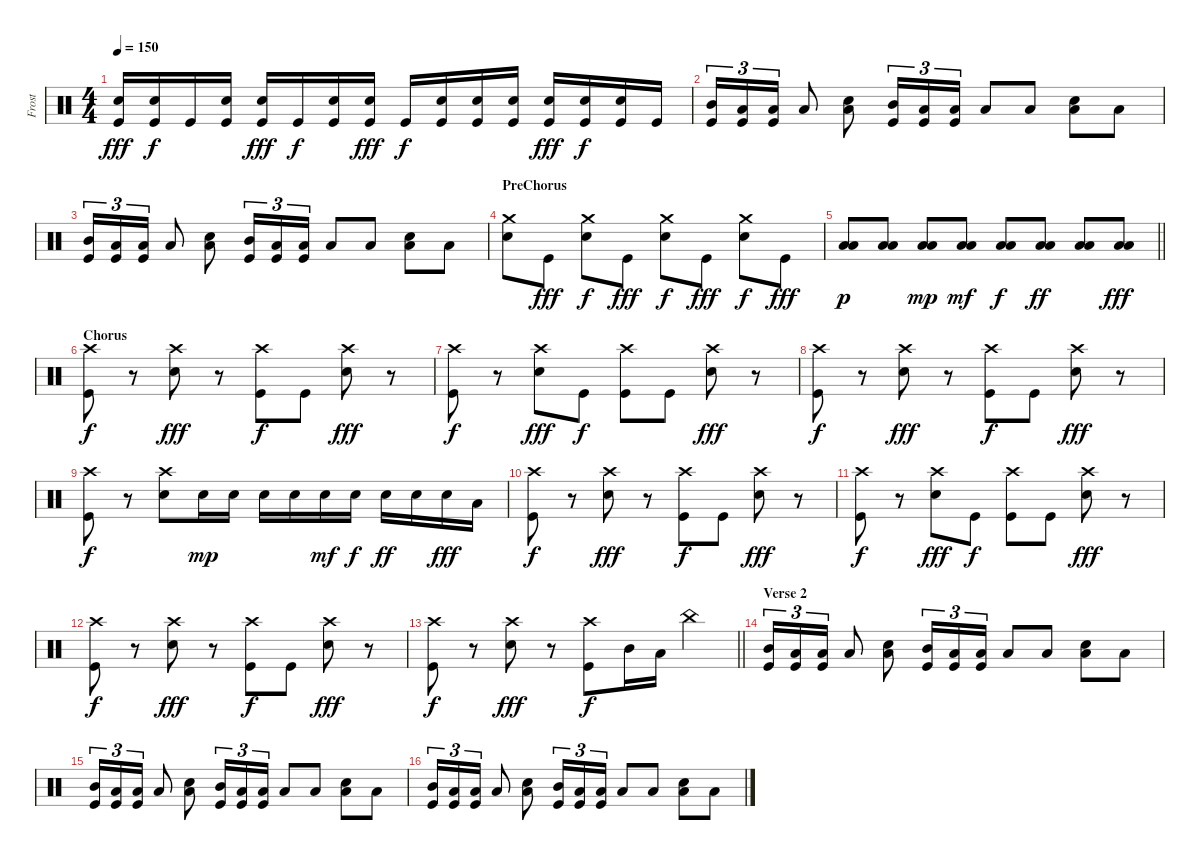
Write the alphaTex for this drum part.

\track ("Frost" "Frost") {instrument percussion}
\staff {score}
\articulation defaults
\ts (4 4)
\tempo 150
\clef neutral
\ks c
("Kick (hit)" "Electric Snare (hit)").16{dy fff} ("Kick (hit)" "Electric Snare (hit)").16{dy f} "Kick (hit)".16 ("Kick (hit)" "Electric Snare (hit)").16 ("Kick (hit)" "Electric Snare (hit)").16{dy fff} "Kick (hit)".16{dy f} ("Kick (hit)" "Electric Snare (hit)").16 ("Kick (hit)" "Electric Snare (hit)").16{dy fff} "Kick (hit)".16{dy f} ("Kick (hit)" "Electric Snare (hit)").16 ("Kick (hit)" "Electric Snare (hit)").16 ("Kick (hit)" "Electric Snare (hit)").16 ("Kick (hit)" "Electric Snare (hit)").16{dy fff} ("Kick (hit)" "Electric Snare (hit)").16{dy f} ("Kick (hit)" "Electric Snare (hit)").16 "Kick (hit)".16 |
("Mid Tom (hit)" "Kick (hit)").16{tu (3 2)} ("Low Tom (hit)" "Kick (hit)").16{tu (3 2)} ("Low Tom (hit)" "Kick (hit)").16{tu (3 2)} "Low Floor Tom (hit)".8 ("Low Floor Tom (hit)" "Electric Snare (hit)").8 ("Mid Tom (hit)" "Kick (hit)").16{tu (3 2)} ("Low Tom (hit)" "Kick (hit)").16{tu (3 2)} ("Low Tom (hit)" "Kick (hit)").16{tu (3 2)} "Low Floor Tom (hit)".8 "Low Floor Tom (hit)".8 ("Low Floor Tom (hit)" "Electric Snare (hit)").8 "Low Floor Tom (hit)".8 |
("Mid Tom (hit)" "Kick (hit)").16{tu (3 2)} ("Low Tom (hit)" "Kick (hit)").16{tu (3 2)} ("Low Tom (hit)" "Kick (hit)").16{tu (3 2)} "Low Floor Tom (hit)".8 ("Low Floor Tom (hit)" "Electric Snare (hit)").8 ("Mid Tom (hit)" "Kick (hit)").16{tu (3 2)} ("Low Tom (hit)" "Kick (hit)").16{tu (3 2)} ("Low Tom (hit)" "Kick (hit)").16{tu (3 2)} "Low Floor Tom (hit)".8 "Low Floor Tom (hit)".8 ("Low Floor Tom (hit)" "Electric Snare (hit)").8 "Low Floor Tom (hit)".8 |
\section ("" "PreChorus")
("Crash medium (hit)" "Electric Snare (hit)").8 "Kick (hit)".8{dy fff} ("Crash medium (hit)" "Electric Snare (hit)").8{dy f} "Kick (hit)".8{dy fff} ("Crash medium (hit)" "Electric Snare (hit)").8{dy f} "Kick (hit)".8{dy fff} ("Crash medium (hit)" "Electric Snare (hit)").8{dy f} "Kick (hit)".8{dy fff} |
\barLineRight lightlight
("Low Tom (hit)" "Low Floor Tom (hit)").8{dy p} ("Low Tom (hit)" "Low Floor Tom (hit)").8 ("Low Tom (hit)" "Low Floor Tom (hit)").8{dy mp} ("Low Tom (hit)" "Low Floor Tom (hit)").8{dy mf} ("Low Tom (hit)" "Low Floor Tom (hit)").8{dy f} ("Low Tom (hit)" "Low Floor Tom (hit)").8{dy ff} ("Low Tom (hit)" "Low Floor Tom (hit)").8 ("Low Tom (hit)" "Low Floor Tom (hit)").8{dy fff} |
\section ("" "Chorus")
("Kick (hit)" "Crash high (hit)").8{dy f} r.8 ("Electric Snare (hit)" "Crash high (hit)").8{dy fff} r.8 ("Kick (hit)" "Crash high (hit)").8{dy f} "Kick (hit)".8 ("Electric Snare (hit)" "Crash high (hit)").8{dy fff} r.8 |
("Kick (hit)" "Crash high (hit)").8{dy f} r.8 ("Electric Snare (hit)" "Crash high (hit)").8{dy fff} "Kick (hit)".8{dy f} ("Kick (hit)" "Crash high (hit)").8 "Kick (hit)".8 ("Electric Snare (hit)" "Crash high (hit)").8{dy fff} r.8 |
("Kick (hit)" "Crash high (hit)").8{dy f} r.8 ("Electric Snare (hit)" "Crash high (hit)").8{dy fff} r.8 ("Kick (hit)" "Crash high (hit)").8{dy f} "Kick (hit)".8 ("Electric Snare (hit)" "Crash high (hit)").8{dy fff} r.8 |
("Kick (hit)" "Crash high (hit)").8{dy f} r.8 ("Electric Snare (hit)" "Crash high (hit)").8 "Electric Snare (hit)".16{dy mp} "Electric Snare (hit)".16 "Electric Snare (hit)".16 "Electric Snare (hit)".16 "Electric Snare (hit)".16{dy mf} "Electric Snare (hit)".16{dy f} "Electric Snare (hit)".16{dy ff} "Electric Snare (hit)".16 "Electric Snare (hit)".16{dy fff} "Low Tom (hit)".16 |
("Kick (hit)" "Crash high (hit)").8{dy f} r.8 ("Electric Snare (hit)" "Crash high (hit)").8{dy fff} r.8 ("Kick (hit)" "Crash high (hit)").8{dy f} "Kick (hit)".8 ("Electric Snare (hit)" "Crash high (hit)").8{dy fff} r.8 |
("Kick (hit)" "Crash high (hit)").8{dy f} r.8 ("Electric Snare (hit)" "Crash high (hit)").8{dy fff} "Kick (hit)".8{dy f} ("Kick (hit)" "Crash high (hit)").8 "Kick (hit)".8 ("Electric Snare (hit)" "Crash high (hit)").8{dy fff} r.8 |
("Kick (hit)" "Crash high (hit)").8{dy f} r.8 ("Electric Snare (hit)" "Crash high (hit)").8{dy fff} r.8 ("Kick (hit)" "Crash high (hit)").8{dy f} "Kick (hit)".8 ("Electric Snare (hit)" "Crash high (hit)").8{dy fff} r.8 |
\barLineRight lightlight
("Kick (hit)" "Crash high (hit)").8{dy f} r.8 ("Electric Snare (hit)" "Crash high (hit)").8{dy fff} r.8 ("Kick (hit)" "Crash high (hit)").8{dy f} "Mid Tom (hit)".16 "Low Tom (hit)".16 "China (hit)".4 |
\section ("" "Verse 2")
("Mid Tom (hit)" "Kick (hit)").16{tu (3 2)} ("Low Tom (hit)" "Kick (hit)").16{tu (3 2)} ("Low Tom (hit)" "Kick (hit)").16{tu (3 2)} "Low Floor Tom (hit)".8 ("Low Floor Tom (hit)" "Electric Snare (hit)").8 ("Mid Tom (hit)" "Kick (hit)").16{tu (3 2)} ("Low Tom (hit)" "Kick (hit)").16{tu (3 2)} ("Low Tom (hit)" "Kick (hit)").16{tu (3 2)} "Low Floor Tom (hit)".8 "Low Floor Tom (hit)".8 ("Low Floor Tom (hit)" "Electric Snare (hit)").8 "Low Floor Tom (hit)".8 |
("Mid Tom (hit)" "Kick (hit)").16{tu (3 2)} ("Low Tom (hit)" "Kick (hit)").16{tu (3 2)} ("Low Tom (hit)" "Kick (hit)").16{tu (3 2)} "Low Floor Tom (hit)".8 ("Low Floor Tom (hit)" "Electric Snare (hit)").8 ("Mid Tom (hit)" "Kick (hit)").16{tu (3 2)} ("Low Tom (hit)" "Kick (hit)").16{tu (3 2)} ("Low Tom (hit)" "Kick (hit)").16{tu (3 2)} "Low Floor Tom (hit)".8 "Low Floor Tom (hit)".8 ("Low Floor Tom (hit)" "Electric Snare (hit)").8 "Low Floor Tom (hit)".8 |
("Mid Tom (hit)" "Kick (hit)").16{tu (3 2)} ("Low Tom (hit)" "Kick (hit)").16{tu (3 2)} ("Low Tom (hit)" "Kick (hit)").16{tu (3 2)} "Low Floor Tom (hit)".8 ("Low Floor Tom (hit)" "Electric Snare (hit)").8 ("Mid Tom (hit)" "Kick (hit)").16{tu (3 2)} ("Low Tom (hit)" "Kick (hit)").16{tu (3 2)} ("Low Tom (hit)" "Kick (hit)").16{tu (3 2)} "Low Floor Tom (hit)".8 "Low Floor Tom (hit)".8 ("Low Floor Tom (hit)" "Electric Snare (hit)").8 "Low Floor Tom (hit)".8
